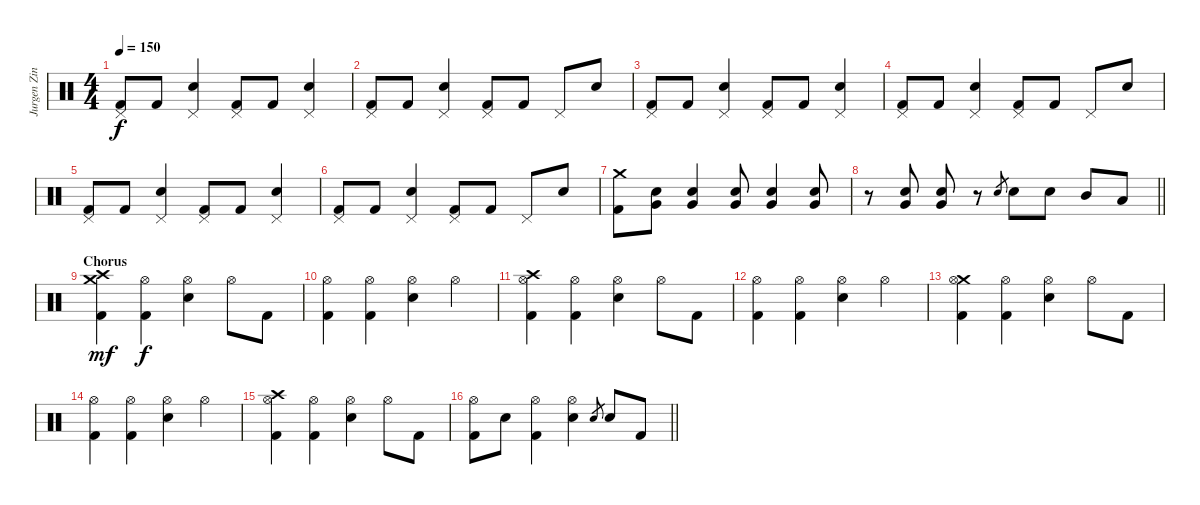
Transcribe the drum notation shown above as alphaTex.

\track ("Jurgen Zing" "Jurgen Zin") {instrument percussion}
\staff {score}
\articulation defaults
\ts (4 4)
\tempo 150
\clef neutral
\ks c
("Pedal Hi-Hat (hit)" "Kick (hit) 2").8{dy f} "Kick (hit) 2".8 ("Pedal Hi-Hat (hit)" "Electric Snare (hit)").4 ("Pedal Hi-Hat (hit)" "Kick (hit) 2").8 "Kick (hit) 2".8 ("Pedal Hi-Hat (hit)" "Electric Snare (hit)").4 |
("Pedal Hi-Hat (hit)" "Kick (hit) 2").8 "Kick (hit) 2".8 ("Pedal Hi-Hat (hit)" "Electric Snare (hit)").4 ("Pedal Hi-Hat (hit)" "Kick (hit) 2").8 "Kick (hit) 2".8 "Pedal Hi-Hat (hit)".8 "Electric Snare (hit)".8 |
("Pedal Hi-Hat (hit)" "Kick (hit) 2").8 "Kick (hit) 2".8 ("Pedal Hi-Hat (hit)" "Electric Snare (hit)").4 ("Pedal Hi-Hat (hit)" "Kick (hit) 2").8 "Kick (hit) 2".8 ("Pedal Hi-Hat (hit)" "Electric Snare (hit)").4 |
("Pedal Hi-Hat (hit)" "Kick (hit) 2").8 "Kick (hit) 2".8 ("Pedal Hi-Hat (hit)" "Electric Snare (hit)").4 ("Pedal Hi-Hat (hit)" "Kick (hit) 2").8 "Kick (hit) 2".8 "Pedal Hi-Hat (hit)".8 "Electric Snare (hit)".8 |
("Pedal Hi-Hat (hit)" "Kick (hit) 2").8 "Kick (hit) 2".8 ("Pedal Hi-Hat (hit)" "Electric Snare (hit)").4 ("Pedal Hi-Hat (hit)" "Kick (hit) 2").8 "Kick (hit) 2".8 ("Pedal Hi-Hat (hit)" "Electric Snare (hit)").4 |
("Pedal Hi-Hat (hit)" "Kick (hit) 2").8 "Kick (hit) 2".8 ("Pedal Hi-Hat (hit)" "Electric Snare (hit)").4 ("Pedal Hi-Hat (hit)" "Kick (hit) 2").8 "Kick (hit) 2".8 "Pedal Hi-Hat (hit)".8 "Electric Snare (hit)".8 |
("Crash medium (hit)" "Kick (hit) 2").8 ("Very Low Tom (hit)" "Electric Snare (hit)").8 ("Very Low Tom (hit)" "Electric Snare (hit)").4 ("Very Low Tom (hit)" "Electric Snare (hit)").8 ("Very Low Tom (hit)" "Electric Snare (hit)").4 ("Very Low Tom (hit)" "Electric Snare (hit)").8 |
\barLineRight lightlight
r.8 ("Very Low Tom (hit)" "Electric Snare (hit)").8 ("Very Low Tom (hit)" "Electric Snare (hit)").8 r.8 "Electric Snare (hit)".8{gr} "Electric Snare (hit)".8 "Electric Snare (hit)".8 "Mid Tom (hit)".8 "Low Tom (hit)".8 |
\section ("" "Chorus")
("Crash medium (hit)" "Crash high (hit)" "Kick (hit) 2").4{dy mf} ("Hi-Hat (open)" "Kick (hit) 2").4{dy f} ("Hi-Hat (open)" "Electric Snare (hit)").4 "Hi-Hat (open)".8 "Kick (hit) 2".8 |
("Hi-Hat (open)" "Kick (hit) 2").4 ("Hi-Hat (open)" "Kick (hit) 2").4 ("Hi-Hat (open)" "Electric Snare (hit)").4 "Hi-Hat (open)".4 |
("Crash high (hit)" "Hi-Hat (open)" "Kick (hit) 2").4 ("Hi-Hat (open)" "Kick (hit) 2").4 ("Hi-Hat (open)" "Electric Snare (hit)").4 "Hi-Hat (open)".8 "Kick (hit) 2".8 |
("Hi-Hat (open)" "Kick (hit) 2").4 ("Hi-Hat (open)" "Kick (hit) 2").4 ("Hi-Hat (open)" "Electric Snare (hit)").4 "Hi-Hat (open)".4 |
("Crash medium (hit)" "Hi-Hat (open)" "Kick (hit) 2").4 ("Hi-Hat (open)" "Kick (hit) 2").4 ("Hi-Hat (open)" "Electric Snare (hit)").4 "Hi-Hat (open)".8 "Kick (hit) 2".8 |
("Hi-Hat (open)" "Kick (hit) 2").4 ("Hi-Hat (open)" "Kick (hit) 2").4 ("Hi-Hat (open)" "Electric Snare (hit)").4 "Hi-Hat (open)".4 |
("Crash high (hit)" "Hi-Hat (open)" "Kick (hit) 2").4 ("Hi-Hat (open)" "Kick (hit) 2").4 ("Hi-Hat (open)" "Electric Snare (hit)").4 "Hi-Hat (open)".8 "Kick (hit) 2".8 |
\barLineRight lightlight
("Hi-Hat (open)" "Kick (hit) 2").8 "Electric Snare (hit)".8 ("Hi-Hat (open)" "Kick (hit) 2").4 ("Hi-Hat (open)" "Electric Snare (hit)").4 "Electric Snare (hit)".8{gr} "Electric Snare (hit)".8 "Kick (hit) 2".8
